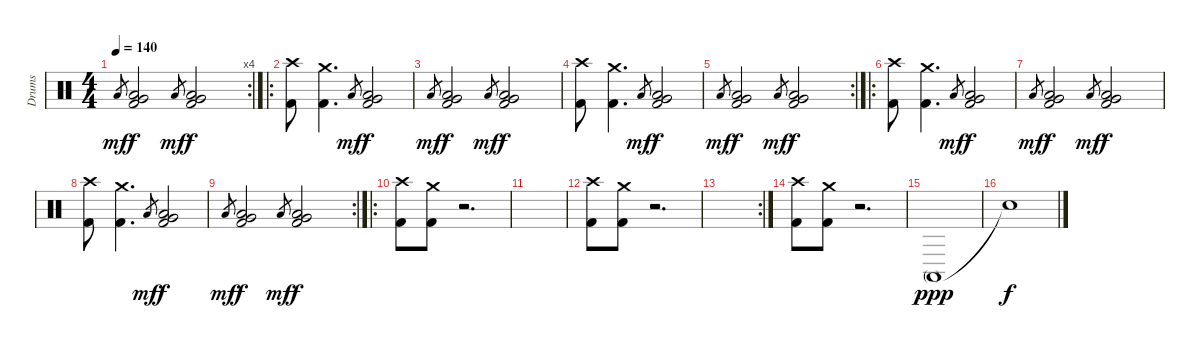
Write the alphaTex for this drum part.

\track ("Drums" "Drums") {instrument percussion}
\staff {score}
\articulation defaults
\rc 4
\ts (4 4)
\tempo 140
\clef neutral
\ks c "Low Floor Tom (hit)".8{gr dy mf}
("Very Low Tom (hit)" "Low Floor Tom (hit)" "Kick (hit) 2").2{dy f} "Low Floor Tom (hit)".8{gr dy mf} ("Very Low Tom (hit)" "Low Floor Tom (hit)" "Kick (hit) 2").2{dy f} |
\ro
("Crash high (hit)" "Kick (hit) 2").8 ("Crash medium (hit)" "Kick (hit) 2").4{d} "Low Floor Tom (hit)".8{gr dy mf} ("Very Low Tom (hit)" "Low Floor Tom (hit)" "Kick (hit) 2").2{dy f} |
"Low Floor Tom (hit)".8{gr dy mf} ("Very Low Tom (hit)" "Low Floor Tom (hit)" "Kick (hit) 2").2{dy f} "Low Floor Tom (hit)".8{gr dy mf} ("Very Low Tom (hit)" "Low Floor Tom (hit)" "Kick (hit) 2").2{dy f} |
("Crash high (hit)" "Kick (hit) 2").8 ("Crash medium (hit)" "Kick (hit) 2").4{d} "Low Floor Tom (hit)".8{gr dy mf} ("Very Low Tom (hit)" "Low Floor Tom (hit)" "Kick (hit) 2").2{dy f} |
\rc 2 "Low Floor Tom (hit)".8{gr dy mf}
("Very Low Tom (hit)" "Low Floor Tom (hit)" "Kick (hit) 2").2{dy f} "Low Floor Tom (hit)".8{gr dy mf} ("Very Low Tom (hit)" "Low Floor Tom (hit)" "Kick (hit) 2").2{dy f} |
\ro
("Crash high (hit)" "Kick (hit) 2").8 ("Crash medium (hit)" "Kick (hit) 2").4{d} "Low Floor Tom (hit)".8{gr dy mf} ("Very Low Tom (hit)" "Low Floor Tom (hit)" "Kick (hit) 2").2{dy f} |
"Low Floor Tom (hit)".8{gr dy mf} ("Very Low Tom (hit)" "Low Floor Tom (hit)" "Kick (hit) 2").2{dy f} "Low Floor Tom (hit)".8{gr dy mf} ("Very Low Tom (hit)" "Low Floor Tom (hit)" "Kick (hit) 2").2{dy f} |
("Crash high (hit)" "Kick (hit) 2").8 ("Crash medium (hit)" "Kick (hit) 2").4{d} "Low Floor Tom (hit)".8{gr dy mf} ("Very Low Tom (hit)" "Low Floor Tom (hit)" "Kick (hit) 2").2{dy f} |
\rc 2 "Low Floor Tom (hit)".8{gr dy mf}
("Very Low Tom (hit)" "Low Floor Tom (hit)" "Kick (hit) 2").2{dy f} "Low Floor Tom (hit)".8{gr dy mf} ("Very Low Tom (hit)" "Low Floor Tom (hit)" "Kick (hit) 2").2{dy f} |
\ro
("Crash high (hit)" "Kick (hit) 2").8 ("Crash medium (hit)" "Kick (hit) 2").8 r.2{d} |
|
("Crash high (hit)" "Kick (hit) 2").8 ("Crash medium (hit)" "Kick (hit) 2").8 r.2{d} |
\rc 2
|
("Crash high (hit)" "Kick (hit) 2").8 ("Crash medium (hit)" "Kick (hit) 2").8 r.2{d} |
"Conga high (mute)".1{dy ppp} |
"Snare (hit)"{t}.1{dy f}
